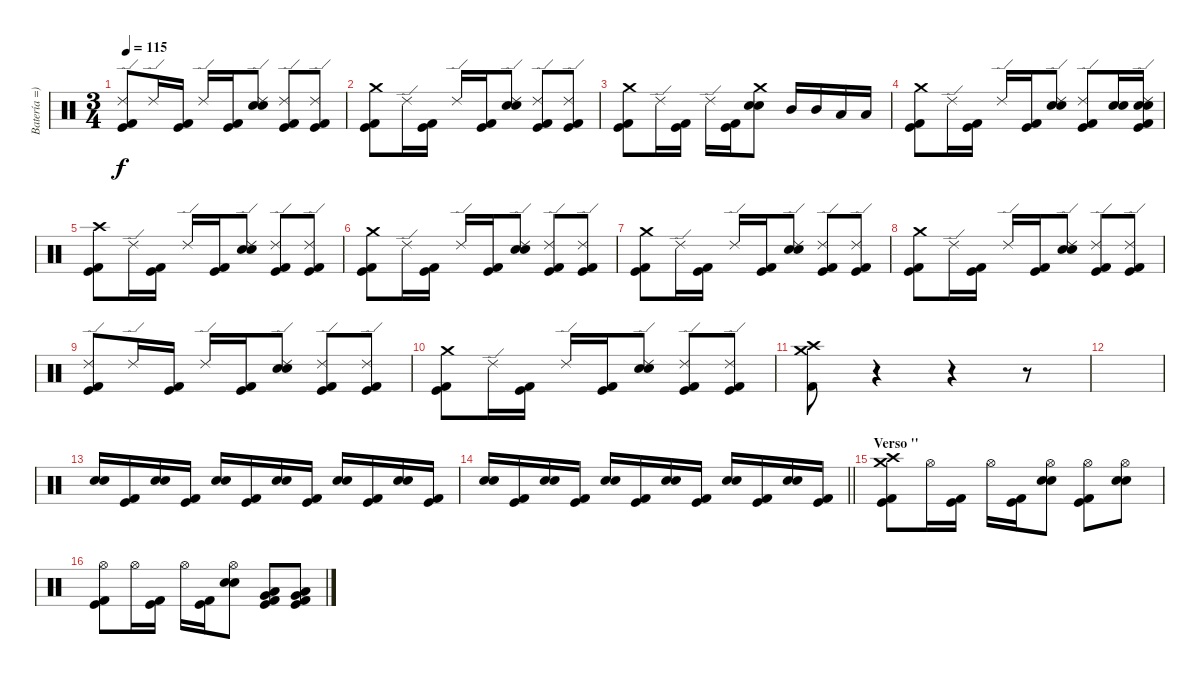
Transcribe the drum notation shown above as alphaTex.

\track ("Batería =)" "Batería =)") {instrument percussion}
\staff {score}
\articulation defaults
\ts (3 4)
\tempo 115
\clef neutral
\ks c
("Ride (edge) 2" "Kick (hit)" "Kick (hit) 2").8{dy f} "Ride (edge) 2".16 ("Kick (hit)" "Kick (hit) 2").16 "Ride (edge) 2".16 ("Kick (hit)" "Kick (hit) 2").16 ("Ride (edge) 2" "Electric Snare (hit)" "Snare (hit) 2").8 ("Ride (edge) 2" "Kick (hit)" "Kick (hit) 2").8 ("Ride (edge) 2" "Kick (hit)" "Kick (hit) 2").8 |
("Crash medium (hit)" "Kick (hit)" "Kick (hit) 2").8 "Ride (edge) 2".16 ("Kick (hit)" "Kick (hit) 2").16 "Ride (edge) 2".16 ("Kick (hit)" "Kick (hit) 2").16 ("Ride (edge) 2" "Electric Snare (hit)" "Snare (hit) 2").8 ("Ride (edge) 2" "Kick (hit)" "Kick (hit) 2").8 ("Ride (edge) 2" "Kick (hit)" "Kick (hit) 2").8 |
("Crash medium (hit)" "Kick (hit)" "Kick (hit) 2").8 "Ride (edge) 2".16 ("Kick (hit)" "Kick (hit) 2").16 "Ride (edge) 2".16 ("Kick (hit)" "Kick (hit) 2").16 ("Crash medium (hit)" "Electric Snare (hit)" "Snare (hit) 2").8 "Mid Tom (hit)".16 "Mid Tom (hit)".16 "Low Tom (hit)".16 "Low Tom (hit)".16 |
("Crash medium (hit)" "Kick (hit)" "Kick (hit) 2").8 "Ride (edge) 2".16 ("Kick (hit)" "Kick (hit) 2").16 "Ride (edge) 2".16 ("Kick (hit)" "Kick (hit) 2").16 ("Ride (edge) 2" "Electric Snare (hit)" "Snare (hit) 2").8 ("Ride (edge) 2" "Kick (hit)" "Kick (hit) 2").8 ("Electric Snare (hit)" "Snare (hit) 2").16 ("Ride (edge) 2" "Electric Snare (hit)" "Snare (hit) 2" "Kick (hit)" "Kick (hit) 2").16 |
("Crash high (hit)" "Kick (hit)" "Kick (hit) 2").8 "Ride (edge) 2".16 ("Kick (hit)" "Kick (hit) 2").16 "Ride (edge) 2".16 ("Kick (hit)" "Kick (hit) 2").16 ("Ride (edge) 2" "Electric Snare (hit)" "Snare (hit) 2").8 ("Ride (edge) 2" "Kick (hit)" "Kick (hit) 2").8 ("Ride (edge) 2" "Kick (hit)" "Kick (hit) 2").8 |
("Crash medium (hit)" "Kick (hit)" "Kick (hit) 2").8 "Ride (edge) 2".16 ("Kick (hit)" "Kick (hit) 2").16 "Ride (edge) 2".16 ("Kick (hit)" "Kick (hit) 2").16 ("Ride (edge) 2" "Electric Snare (hit)" "Snare (hit) 2").8 ("Ride (edge) 2" "Kick (hit)" "Kick (hit) 2").8 ("Ride (edge) 2" "Kick (hit)" "Kick (hit) 2").8 |
("Crash medium (hit)" "Kick (hit)" "Kick (hit) 2").8 "Ride (edge) 2".16 ("Kick (hit)" "Kick (hit) 2").16 "Ride (edge) 2".16 ("Kick (hit)" "Kick (hit) 2").16 ("Ride (edge) 2" "Electric Snare (hit)" "Snare (hit) 2").8 ("Ride (edge) 2" "Kick (hit)" "Kick (hit) 2").8 ("Ride (edge) 2" "Kick (hit)" "Kick (hit) 2").8 |
("Crash medium (hit)" "Kick (hit)" "Kick (hit) 2").8 "Ride (edge) 2".16 ("Kick (hit)" "Kick (hit) 2").16 "Ride (edge) 2".16 ("Kick (hit)" "Kick (hit) 2").16 ("Ride (edge) 2" "Electric Snare (hit)" "Snare (hit) 2").8 ("Ride (edge) 2" "Kick (hit)" "Kick (hit) 2").8 ("Ride (edge) 2" "Kick (hit)" "Kick (hit) 2").8 |
("Ride (edge) 2" "Kick (hit)" "Kick (hit) 2").8 "Ride (edge) 2".16 ("Kick (hit)" "Kick (hit) 2").16 "Ride (edge) 2".16 ("Kick (hit)" "Kick (hit) 2").16 ("Ride (edge) 2" "Electric Snare (hit)" "Snare (hit) 2").8 ("Ride (edge) 2" "Kick (hit)" "Kick (hit) 2").8 ("Ride (edge) 2" "Kick (hit)" "Kick (hit) 2").8 |
("Crash medium (hit)" "Kick (hit)" "Kick (hit) 2").8 "Ride (edge) 2".16 ("Kick (hit)" "Kick (hit) 2").16 "Ride (edge) 2".16 ("Kick (hit)" "Kick (hit) 2").16 ("Ride (edge) 2" "Electric Snare (hit)" "Snare (hit) 2").8 ("Ride (edge) 2" "Kick (hit)" "Kick (hit) 2").8 ("Ride (edge) 2" "Kick (hit)" "Kick (hit) 2").8 |
("Crash high (hit)" "Crash medium (hit)" "Kick (hit) 2").8 r.4{volume 0} r.4 r.8 |
|
("Electric Snare (hit)" "Snare (hit) 2").16{volume 16} ("Kick (hit)" "Kick (hit) 2").16 ("Electric Snare (hit)" "Snare (hit) 2").16 ("Kick (hit)" "Kick (hit) 2").16 ("Electric Snare (hit)" "Snare (hit) 2").16 ("Kick (hit)" "Kick (hit) 2").16 ("Electric Snare (hit)" "Snare (hit) 2").16 ("Kick (hit)" "Kick (hit) 2").16 ("Electric Snare (hit)" "Snare (hit) 2").16 ("Kick (hit)" "Kick (hit) 2").16 ("Electric Snare (hit)" "Snare (hit) 2").16 ("Kick (hit)" "Kick (hit) 2").16 |
\barLineRight lightlight
("Electric Snare (hit)" "Snare (hit) 2").16 ("Kick (hit)" "Kick (hit) 2").16 ("Electric Snare (hit)" "Snare (hit) 2").16 ("Kick (hit)" "Kick (hit) 2").16 ("Electric Snare (hit)" "Snare (hit) 2").16 ("Kick (hit)" "Kick (hit) 2").16 ("Electric Snare (hit)" "Snare (hit) 2").16 ("Kick (hit)" "Kick (hit) 2").16 ("Electric Snare (hit)" "Snare (hit) 2").16 ("Kick (hit)" "Kick (hit) 2").16 ("Electric Snare (hit)" "Snare (hit) 2").16 ("Kick (hit)" "Kick (hit) 2").16 |
\section ("" "Verso ''")
("Crash high (hit)" "Crash medium (hit)" "Kick (hit)" "Kick (hit) 2").8 "Hi-Hat (open)".16 ("Kick (hit)" "Kick (hit) 2").16 "Hi-Hat (open)".16 ("Kick (hit)" "Kick (hit) 2").16 ("Hi-Hat (open)" "Snare (hit) 2" "Electric Snare (hit)").8 ("Hi-Hat (open)" "Kick (hit)" "Kick (hit) 2").8 ("Hi-Hat (open)" "Snare (hit) 2" "Electric Snare (hit)").8 |
("Hi-Hat (open)" "Kick (hit)" "Kick (hit) 2").8 "Hi-Hat (open)".16 ("Kick (hit)" "Kick (hit) 2").16 "Hi-Hat (open)".16 ("Kick (hit)" "Kick (hit) 2").16 ("Hi-Hat (open)" "Snare (hit) 2" "Electric Snare (hit)").8 ("Low Floor Tom (hit)" "Very Low Tom (hit)" "Kick (hit)" "Kick (hit) 2").8 ("Low Floor Tom (hit)" "Very Low Tom (hit)" "Kick (hit)" "Kick (hit) 2").8
